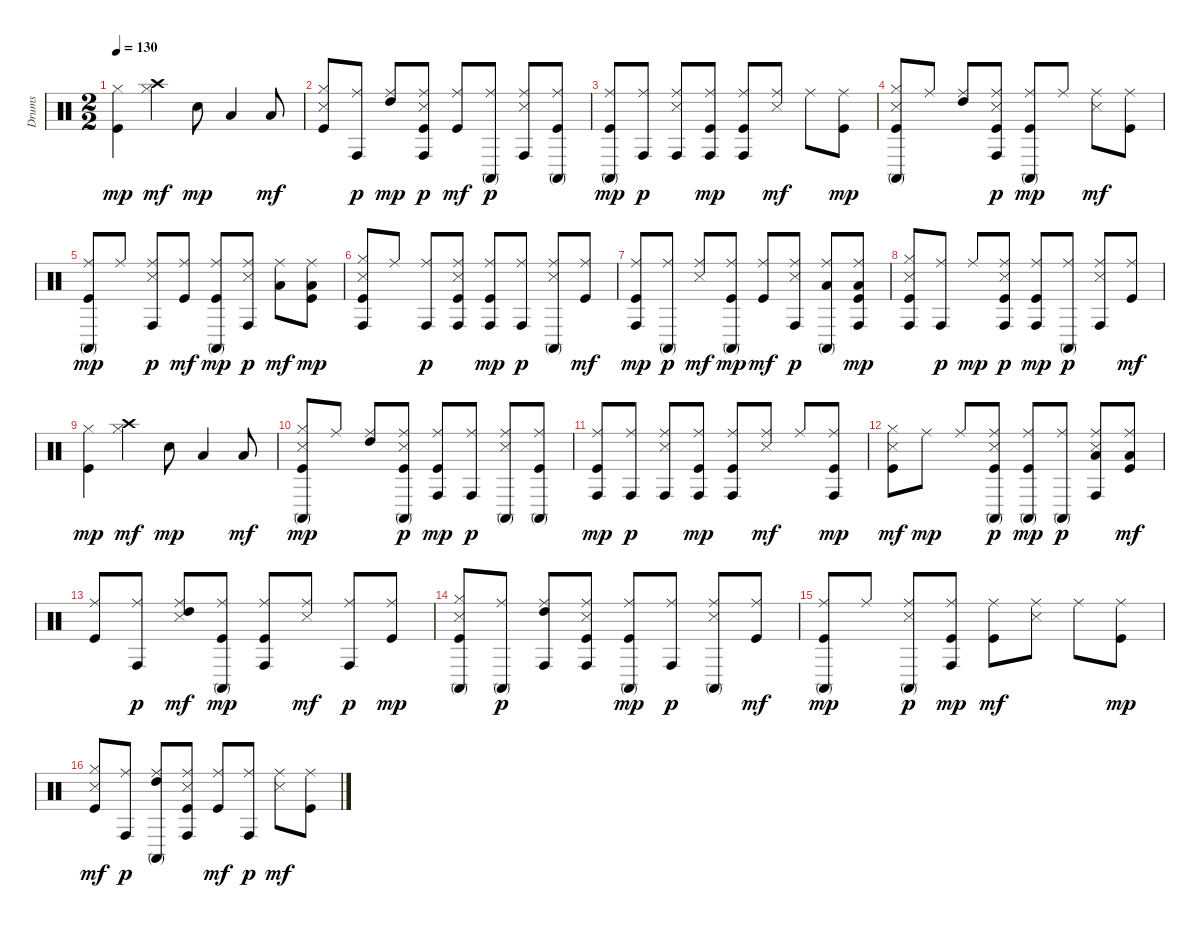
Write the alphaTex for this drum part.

\track ("Drums" "Drums") {instrument percussion}
\staff {score}
\articulation defaults
\ts (2 2)
\tempo 130
\clef neutral
\ks c
("Kick (hit)" "Hi-Hat (closed)").4{dy mp} ("Hi-Hat (closed)" "Crash high (hit)").4{dy mf} "Snare (hit) 2".8{dy mp} "Low Tom (hit)".4 "Low Tom (hit)".8{dy mf} |
("Kick (hit)" "Snare (side stick) 3" "Hi-Hat (closed)").8 ("Ride (middle)" "Conga high (hit)").8{dy p} ("High Tom (hit)" "Ride (middle)").8{dy mp} ("Kick (hit)" "Snare (side stick) 3" "Ride (middle)" "Conga high (hit)").8{dy p} ("Kick (hit)" "Ride (middle)").8{dy mf} ("Ride (middle)" "Conga high (mute)").8{dy p} ("Snare (side stick) 3" "Ride (middle)" "Conga high (hit)").8 ("Kick (hit)" "Ride (middle)" "Conga high (mute)").8 |
("Kick (hit)" "Ride (middle)" "Conga high (mute)").8{dy mp} ("Ride (middle)" "Conga high (hit)").8{dy p} ("Snare (side stick) 3" "Ride (middle)" "Conga high (hit)").8 ("Kick (hit)" "Ride (middle)" "Conga high (hit)").8{dy mp} ("Kick (hit)" "Ride (middle)" "Conga high (hit)").8 ("Snare (side stick) 3" "Ride (middle)").8{dy mf} "Ride (middle)".8 ("Kick (hit)" "Ride (middle)").8{dy mp} |
("Kick (hit)" "Snare (side stick) 3" "Hi-Hat (closed)" "Conga high (mute)").8 "Ride (middle)".8 ("High Tom (hit)" "Ride (middle)").8 ("Kick (hit)" "Snare (side stick) 3" "Ride (middle)" "Conga high (hit)").8{dy p} ("Kick (hit)" "Ride (middle)" "Conga high (mute)").8{dy mp} "Ride (middle)".8 ("Snare (side stick) 3" "Ride (middle)").8{dy mf} ("Kick (hit)" "Ride (middle)").8 |
("Kick (hit)" "Ride (middle)" "Conga high (mute)").8{dy mp} "Ride (middle)".8 ("Snare (side stick) 3" "Ride (middle)" "Conga high (hit)").8{dy p} ("Kick (hit)" "Ride (middle)").8{dy mf} ("Kick (hit)" "Ride (middle)" "Conga high (mute)").8{dy mp} ("Snare (side stick) 3" "Ride (middle)" "Conga high (hit)").8{dy p} ("Low Tom (hit)" "Ride (middle)").8{dy mf} ("Kick (hit)" "Low Tom (hit)" "Ride (middle)").8{dy mp} |
("Kick (hit)" "Snare (side stick) 3" "Hi-Hat (closed)" "Conga high (hit)").8 "Ride (middle)".8 ("Ride (middle)" "Conga high (hit)").8{dy p} ("Kick (hit)" "Snare (side stick) 3" "Ride (middle)" "Conga high (hit)").8 ("Kick (hit)" "Ride (middle)" "Conga high (hit)").8{dy mp} ("Ride (middle)" "Conga high (hit)").8{dy p} ("Snare (side stick) 3" "Ride (middle)" "Conga high (mute)").8 ("Kick (hit)" "Ride (middle)").8{dy mf} |
("Kick (hit)" "Ride (middle)" "Conga high (hit)").8{dy mp} ("Ride (middle)" "Conga high (mute)").8{dy p} ("Snare (side stick) 3" "Ride (middle)").8{dy mf} ("Kick (hit)" "Ride (middle)" "Conga high (mute)").8{dy mp} ("Kick (hit)" "Ride (middle)").8{dy mf} ("Snare (side stick) 3" "Ride (middle)" "Conga high (hit)").8{dy p} ("Low Tom (hit)" "Ride (middle)" "Conga high (mute)").8 ("Kick (hit)" "Low Tom (hit)" "Ride (middle)" "Conga high (hit)").8{dy mp} |
("Kick (hit)" "Snare (side stick) 3" "Hi-Hat (closed)" "Conga high (hit)").8 ("Ride (middle)" "Conga high (hit)").8{dy p} "Ride (middle)".8{dy mp} ("Kick (hit)" "Snare (side stick) 3" "Ride (middle)" "Conga high (hit)").8{dy p} ("Kick (hit)" "Ride (middle)" "Conga high (hit)").8{dy mp} ("Ride (middle)" "Conga high (mute)").8{dy p} ("Snare (side stick) 3" "Ride (middle)" "Conga high (hit)").8 ("Kick (hit)" "Ride (middle)").8{dy mf} |
("Kick (hit)" "Hi-Hat (closed)").4{dy mp} ("Hi-Hat (closed)" "Crash high (hit)").4{dy mf} "Snare (hit) 2".8{dy mp} "Low Tom (hit)".4 "Low Tom (hit)".8{dy mf} |
("Kick (hit)" "Snare (side stick) 3" "Hi-Hat (closed)" "Conga high (mute)").8{dy mp} "Ride (middle)".8 ("High Tom (hit)" "Ride (middle)").8 ("Kick (hit)" "Snare (side stick) 3" "Ride (middle)" "Conga high (mute)").8{dy p} ("Kick (hit)" "Ride (middle)" "Conga high (hit)").8{dy mp} ("Ride (middle)" "Conga high (hit)").8{dy p} ("Snare (side stick) 3" "Ride (middle)" "Conga high (mute)").8 ("Kick (hit)" "Ride (middle)" "Conga high (mute)").8 |
("Kick (hit)" "Ride (middle)" "Conga high (hit)").8{dy mp} ("Ride (middle)" "Conga high (hit)").8{dy p} ("Snare (side stick) 3" "Ride (middle)" "Conga high (hit)").8 ("Kick (hit)" "Ride (middle)" "Conga high (hit)").8{dy mp} ("Kick (hit)" "Ride (middle)" "Conga high (hit)").8 ("Snare (side stick) 3" "Ride (middle)").8{dy mf} "Ride (middle)".8 ("Kick (hit)" "Ride (middle)" "Conga high (hit)").8{dy mp} |
("Kick (hit)" "Snare (side stick) 3" "Hi-Hat (closed)").8{dy mf} "Ride (middle)".8{dy mp} "Ride (middle)".8 ("Kick (hit)" "Snare (side stick) 3" "Ride (middle)" "Conga high (mute)").8{dy p} ("Kick (hit)" "Ride (middle)" "Conga high (mute)").8{dy mp} ("Ride (middle)" "Conga high (mute)").8{dy p} ("Snare (side stick) 3" "Low Tom (hit)" "Ride (middle)" "Conga high (hit)").8 ("Kick (hit)" "Low Tom (hit)" "Ride (middle)").8{dy mf} |
("Kick (hit)" "Ride (middle)").8 ("Ride (middle)" "Conga high (hit)").8{dy p} ("Snare (side stick) 3" "High Tom (hit)" "Ride (middle)").8{dy mf} ("Kick (hit)" "Ride (middle)" "Conga high (mute)").8{dy mp} ("Kick (hit)" "Ride (middle)" "Conga high (hit)").8 ("Snare (side stick) 3" "Ride (middle)").8{dy mf} ("Ride (middle)" "Conga high (hit)").8{dy p} ("Kick (hit)" "Ride (middle)").8{dy mp} |
("Kick (hit)" "Snare (side stick) 3" "Hi-Hat (closed)" "Conga high (mute)").8 ("Ride (middle)" "Conga high (mute)").8{dy p} ("High Tom (hit)" "Ride (middle)" "Conga high (hit)").8 ("Kick (hit)" "Snare (side stick) 3" "Ride (middle)" "Conga high (hit)").8 ("Kick (hit)" "Ride (middle)" "Conga high (mute)").8{dy mp} ("Ride (middle)" "Conga high (hit)").8{dy p} ("Snare (side stick) 3" "Ride (middle)" "Conga high (mute)").8 ("Kick (hit)" "Ride (middle)").8{dy mf} |
("Kick (hit)" "Ride (middle)" "Conga high (mute)").8{dy mp} "Ride (middle)".8 ("Snare (side stick) 3" "Ride (middle)" "Conga high (mute)").8{dy p} ("Kick (hit)" "Ride (middle)" "Conga high (hit)").8{dy mp} ("Kick (hit)" "Ride (middle)").8{dy mf} ("Snare (side stick) 3" "Ride (middle)").8 "Ride (middle)".8 ("Kick (hit)" "Ride (middle)").8{dy mp} |
("Kick (hit)" "Snare (side stick) 3" "Hi-Hat (closed)").8{dy mf} ("Ride (middle)" "Conga high (hit)").8{dy p} ("High Tom (hit)" "Ride (middle)" "Conga high (mute)").8 ("Kick (hit)" "Snare (side stick) 3" "Ride (middle)" "Conga high (hit)").8 ("Kick (hit)" "Ride (middle)").8{dy mf} ("Ride (middle)" "Conga high (hit)").8{dy p} ("Snare (side stick) 3" "Ride (middle)").8{dy mf} ("Kick (hit)" "Ride (middle)").8
